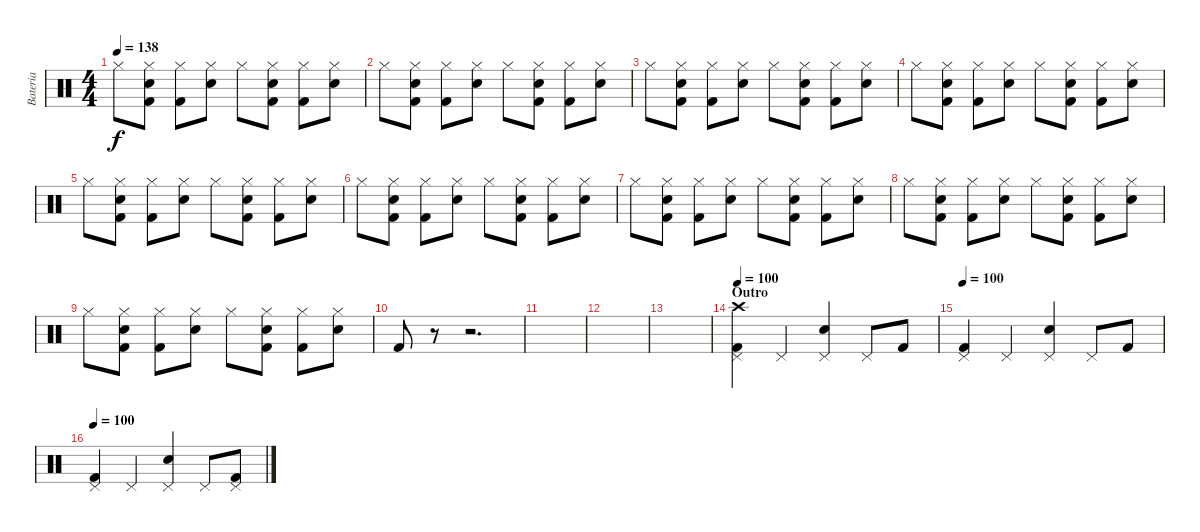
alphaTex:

\track ("Bateria" "Bateria") {instrument percussion}
\staff {score}
\articulation defaults
\ts (4 4)
\tempo 138
\clef neutral
\ks c "Hi-Hat (closed)".8{dy f}
("Electric Snare (hit)" "Hi-Hat (closed)" "Kick (hit) 2").8 ("Hi-Hat (closed)" "Kick (hit) 2").8 ("Electric Snare (hit)" "Hi-Hat (closed)").8 "Hi-Hat (closed)".8 ("Electric Snare (hit)" "Hi-Hat (closed)" "Kick (hit) 2").8 ("Hi-Hat (closed)" "Kick (hit) 2").8 ("Electric Snare (hit)" "Hi-Hat (closed)").8 |
"Hi-Hat (closed)".8 ("Electric Snare (hit)" "Hi-Hat (closed)" "Kick (hit) 2").8 ("Hi-Hat (closed)" "Kick (hit) 2").8 ("Electric Snare (hit)" "Hi-Hat (closed)").8 "Hi-Hat (closed)".8 ("Electric Snare (hit)" "Hi-Hat (closed)" "Kick (hit) 2").8 ("Hi-Hat (closed)" "Kick (hit) 2").8 ("Electric Snare (hit)" "Hi-Hat (closed)").8 |
"Hi-Hat (closed)".8 ("Electric Snare (hit)" "Hi-Hat (closed)" "Kick (hit) 2").8 ("Hi-Hat (closed)" "Kick (hit) 2").8 ("Electric Snare (hit)" "Hi-Hat (closed)").8 "Hi-Hat (closed)".8 ("Electric Snare (hit)" "Hi-Hat (closed)" "Kick (hit) 2").8 ("Hi-Hat (closed)" "Kick (hit) 2").8 ("Electric Snare (hit)" "Hi-Hat (closed)").8 |
"Hi-Hat (closed)".8 ("Electric Snare (hit)" "Hi-Hat (closed)" "Kick (hit) 2").8 ("Hi-Hat (closed)" "Kick (hit) 2").8 ("Electric Snare (hit)" "Hi-Hat (closed)").8 "Hi-Hat (closed)".8 ("Electric Snare (hit)" "Hi-Hat (closed)" "Kick (hit) 2").8 ("Hi-Hat (closed)" "Kick (hit) 2").8 ("Electric Snare (hit)" "Hi-Hat (closed)").8 |
"Hi-Hat (closed)".8 ("Electric Snare (hit)" "Hi-Hat (closed)" "Kick (hit) 2").8 ("Hi-Hat (closed)" "Kick (hit) 2").8 ("Electric Snare (hit)" "Hi-Hat (closed)").8 "Hi-Hat (closed)".8 ("Electric Snare (hit)" "Hi-Hat (closed)" "Kick (hit) 2").8 ("Hi-Hat (closed)" "Kick (hit) 2").8 ("Electric Snare (hit)" "Hi-Hat (closed)").8 |
"Hi-Hat (closed)".8 ("Electric Snare (hit)" "Hi-Hat (closed)" "Kick (hit) 2").8 ("Hi-Hat (closed)" "Kick (hit) 2").8 ("Electric Snare (hit)" "Hi-Hat (closed)").8 "Hi-Hat (closed)".8 ("Electric Snare (hit)" "Hi-Hat (closed)" "Kick (hit) 2").8 ("Hi-Hat (closed)" "Kick (hit) 2").8 ("Electric Snare (hit)" "Hi-Hat (closed)").8 |
"Hi-Hat (closed)".8 ("Electric Snare (hit)" "Hi-Hat (closed)" "Kick (hit) 2").8 ("Hi-Hat (closed)" "Kick (hit) 2").8 ("Electric Snare (hit)" "Hi-Hat (closed)").8 "Hi-Hat (closed)".8 ("Electric Snare (hit)" "Hi-Hat (closed)" "Kick (hit) 2").8 ("Hi-Hat (closed)" "Kick (hit) 2").8 ("Electric Snare (hit)" "Hi-Hat (closed)").8 |
"Hi-Hat (closed)".8 ("Electric Snare (hit)" "Hi-Hat (closed)" "Kick (hit) 2").8 ("Hi-Hat (closed)" "Kick (hit) 2").8 ("Electric Snare (hit)" "Hi-Hat (closed)").8 "Hi-Hat (closed)".8 ("Electric Snare (hit)" "Hi-Hat (closed)" "Kick (hit) 2").8 ("Hi-Hat (closed)" "Kick (hit) 2").8 ("Electric Snare (hit)" "Hi-Hat (closed)").8 |
"Hi-Hat (closed)".8 ("Electric Snare (hit)" "Hi-Hat (closed)" "Kick (hit) 2").8 ("Hi-Hat (closed)" "Kick (hit) 2").8 ("Electric Snare (hit)" "Hi-Hat (closed)").8 "Hi-Hat (closed)".8 ("Electric Snare (hit)" "Hi-Hat (closed)" "Kick (hit) 2").8 ("Hi-Hat (closed)" "Kick (hit) 2").8 ("Electric Snare (hit)" "Hi-Hat (closed)").8 |
"Kick (hit) 2".8 r.8 r.2{d} |
|
|
|
\section ("" "Outro")
\tempo 100
("Pedal Hi-Hat (hit)" "Kick (hit) 2" "Crash high (hit)").4 "Pedal Hi-Hat (hit)".4 ("Pedal Hi-Hat (hit)" "Electric Snare (hit)").4 "Pedal Hi-Hat (hit)".8 "Kick (hit) 2".8 |
\tempo 100
("Pedal Hi-Hat (hit)" "Kick (hit) 2").4 "Pedal Hi-Hat (hit)".4 ("Pedal Hi-Hat (hit)" "Electric Snare (hit)").4 "Pedal Hi-Hat (hit)".8 "Kick (hit) 2".8 |
\tempo 100
("Pedal Hi-Hat (hit)" "Kick (hit) 2").4 "Pedal Hi-Hat (hit)".4 ("Pedal Hi-Hat (hit)" "Electric Snare (hit)").4 "Pedal Hi-Hat (hit)".8 ("Pedal Hi-Hat (hit)" "Kick (hit) 2").8
